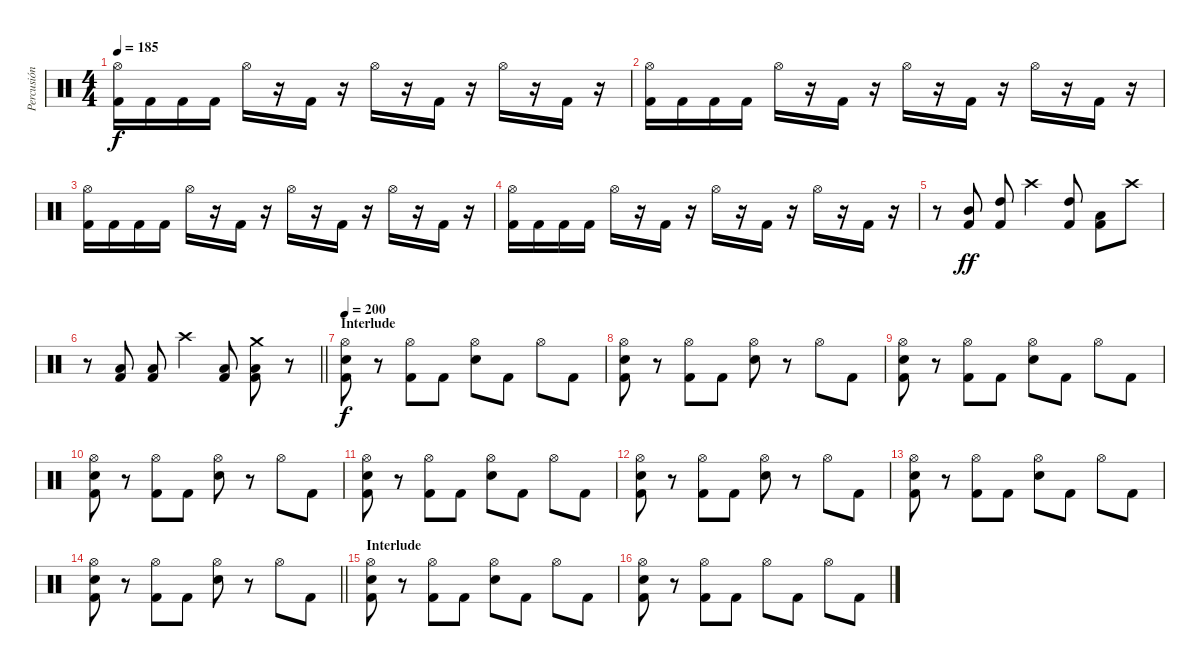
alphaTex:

\track ("Percusión" "Percusión") {instrument percussion}
\staff {score}
\articulation defaults
\ts (4 4)
\tempo 185
\clef neutral
\ks c
("Hi-Hat (open)" "Kick (hit) 2").16{dy f} "Kick (hit) 2".16 "Kick (hit) 2".16 "Kick (hit) 2".16 "Hi-Hat (open)".16 r.16 "Kick (hit) 2".16 r.16 "Hi-Hat (open)".16 r.16 "Kick (hit) 2".16 r.16 "Hi-Hat (open)".16 r.16 "Kick (hit) 2".16 r.16 |
("Hi-Hat (open)" "Kick (hit) 2").16 "Kick (hit) 2".16 "Kick (hit) 2".16 "Kick (hit) 2".16 "Hi-Hat (open)".16 r.16 "Kick (hit) 2".16 r.16 "Hi-Hat (open)".16 r.16 "Kick (hit) 2".16 r.16 "Hi-Hat (open)".16 r.16 "Kick (hit) 2".16 r.16 |
("Hi-Hat (open)" "Kick (hit) 2").16 "Kick (hit) 2".16 "Kick (hit) 2".16 "Kick (hit) 2".16 "Hi-Hat (open)".16 r.16 "Kick (hit) 2".16 r.16 "Hi-Hat (open)".16 r.16 "Kick (hit) 2".16 r.16 "Hi-Hat (open)".16 r.16 "Kick (hit) 2".16 r.16 |
("Hi-Hat (open)" "Kick (hit) 2").16 "Kick (hit) 2".16 "Kick (hit) 2".16 "Kick (hit) 2".16 "Hi-Hat (open)".16 r.16 "Kick (hit) 2".16 r.16 "Hi-Hat (open)".16 r.16 "Kick (hit) 2".16 r.16 "Hi-Hat (open)".16 r.16 "Kick (hit) 2".16 r.16 |
r.8 ("Mid Tom (hit)" "Kick (hit) 2").8{dy ff} ("High Tom (hit)" "Kick (hit) 2").8 "Crash high (hit)".4 ("High Tom (hit)" "Kick (hit) 2").8 ("Low Tom (hit)" "Kick (hit) 2").8 "Crash high (hit)".8 |
\barLineRight lightlight
r.8 ("Low Tom (hit)" "Kick (hit) 2").8 ("Low Floor Tom (hit)" "Kick (hit) 2").8 "Crash high (hit)".4 ("Low Floor Tom (hit)" "Kick (hit) 2").8 ("Crash medium (hit)" "Low Tom (hit)" "Kick (hit) 2").8 r.8 |
\section ("" "Interlude")
\tempo 200
("Hi-Hat (open)" "Snare (hit) 2" "Kick (hit) 2").8{dy f} r.8 ("Hi-Hat (open)" "Kick (hit) 2").8 "Kick (hit) 2".8 ("Hi-Hat (open)" "Snare (hit) 2").8 "Kick (hit) 2".8 "Hi-Hat (open)".8 "Kick (hit) 2".8 |
("Hi-Hat (open)" "Snare (hit) 2" "Kick (hit) 2").8 r.8 ("Hi-Hat (open)" "Kick (hit) 2").8 "Kick (hit) 2".8 ("Hi-Hat (open)" "Snare (hit) 2").8 r.8 "Hi-Hat (open)".8 "Kick (hit) 2".8 |
("Hi-Hat (open)" "Snare (hit) 2" "Kick (hit) 2").8 r.8 ("Hi-Hat (open)" "Kick (hit) 2").8 "Kick (hit) 2".8 ("Hi-Hat (open)" "Snare (hit) 2").8 "Kick (hit) 2".8 "Hi-Hat (open)".8 "Kick (hit) 2".8 |
("Hi-Hat (open)" "Snare (hit) 2" "Kick (hit) 2").8 r.8 ("Hi-Hat (open)" "Kick (hit) 2").8 "Kick (hit) 2".8 ("Hi-Hat (open)" "Snare (hit) 2").8 r.8 "Hi-Hat (open)".8 "Kick (hit) 2".8 |
("Hi-Hat (open)" "Snare (hit) 2" "Kick (hit) 2").8 r.8 ("Hi-Hat (open)" "Kick (hit) 2").8 "Kick (hit) 2".8 ("Hi-Hat (open)" "Snare (hit) 2").8 "Kick (hit) 2".8 "Hi-Hat (open)".8 "Kick (hit) 2".8 |
("Hi-Hat (open)" "Snare (hit) 2" "Kick (hit) 2").8 r.8 ("Hi-Hat (open)" "Kick (hit) 2").8 "Kick (hit) 2".8 ("Hi-Hat (open)" "Snare (hit) 2").8 r.8 "Hi-Hat (open)".8 "Kick (hit) 2".8 |
("Hi-Hat (open)" "Snare (hit) 2" "Kick (hit) 2").8 r.8 ("Hi-Hat (open)" "Kick (hit) 2").8 "Kick (hit) 2".8 ("Hi-Hat (open)" "Snare (hit) 2").8 "Kick (hit) 2".8 "Hi-Hat (open)".8 "Kick (hit) 2".8 |
\barLineRight lightlight
("Hi-Hat (open)" "Snare (hit) 2" "Kick (hit) 2").8 r.8 ("Hi-Hat (open)" "Kick (hit) 2").8 "Kick (hit) 2".8 ("Hi-Hat (open)" "Snare (hit) 2").8 r.8 "Hi-Hat (open)".8 "Kick (hit) 2".8 |
\section ("" "Interlude")
("Hi-Hat (open)" "Snare (hit) 2" "Kick (hit) 2").8 r.8 ("Hi-Hat (open)" "Kick (hit) 2").8 "Kick (hit) 2".8 ("Hi-Hat (open)" "Snare (hit) 2").8 "Kick (hit) 2".8 "Hi-Hat (open)".8 "Kick (hit) 2".8 |
("Hi-Hat (open)" "Snare (hit) 2" "Kick (hit) 2").8 r.8 ("Hi-Hat (open)" "Kick (hit) 2").8 "Kick (hit) 2".8 "Hi-Hat (open)".8 "Kick (hit) 2".8 "Hi-Hat (open)".8 "Kick (hit) 2".8
